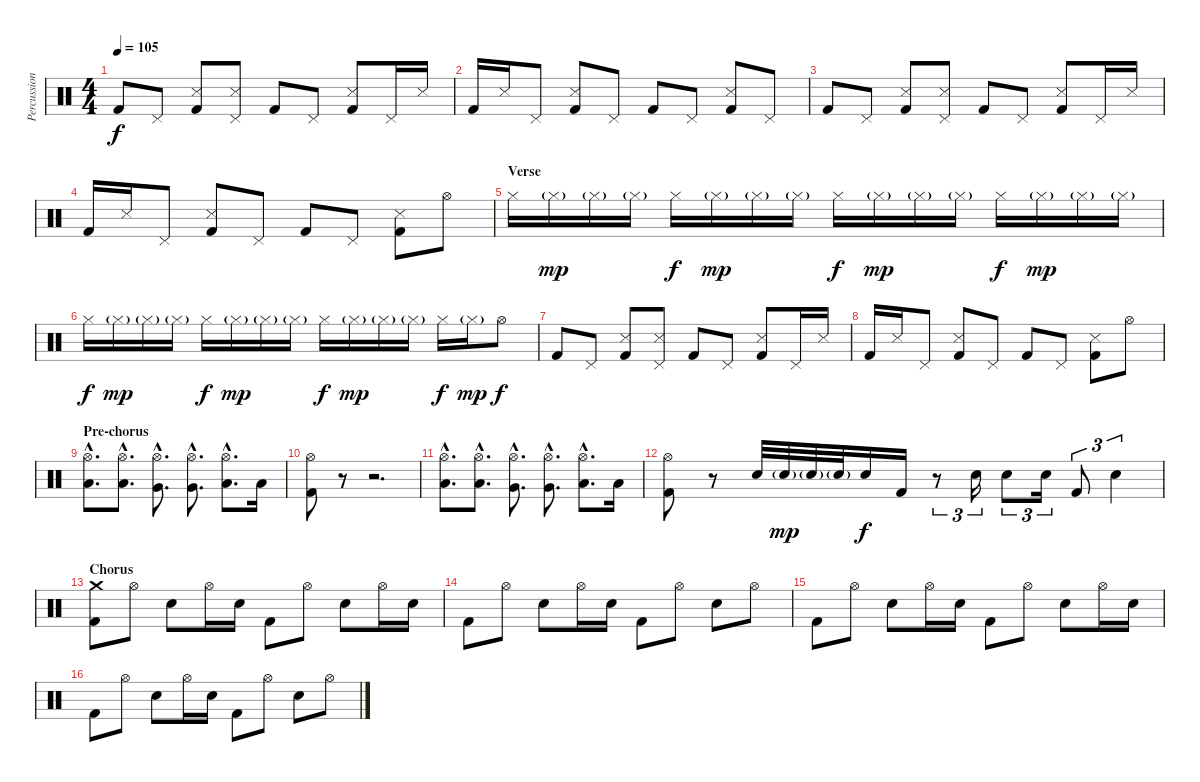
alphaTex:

\track ("Percussion" "Percussion") {instrument percussion}
\staff {score}
\articulation defaults
\ts (4 4)
\tempo 105
\clef neutral
\ks c "Kick (hit) 2".8{dy f} "Pedal Hi-Hat (hit)".8
("Snare (side stick) 3" "Kick (hit) 2").8 ("Pedal Hi-Hat (hit)" "Snare (side stick) 3").8 "Kick (hit) 2".8 "Pedal Hi-Hat (hit)".8 ("Snare (side stick) 3" "Kick (hit) 2").8 "Pedal Hi-Hat (hit)".16 "Snare (side stick) 3".16 |
"Kick (hit) 2".16 "Snare (side stick) 3".16 "Pedal Hi-Hat (hit)".8 ("Snare (side stick) 3" "Kick (hit) 2").8 "Pedal Hi-Hat (hit)".8 "Kick (hit) 2".8 "Pedal Hi-Hat (hit)".8 ("Snare (side stick) 3" "Kick (hit) 2").8 "Pedal Hi-Hat (hit)".8 |
"Kick (hit) 2".8 "Pedal Hi-Hat (hit)".8 ("Snare (side stick) 3" "Kick (hit) 2").8 ("Pedal Hi-Hat (hit)" "Snare (side stick) 3").8 "Kick (hit) 2".8 "Pedal Hi-Hat (hit)".8 ("Snare (side stick) 3" "Kick (hit) 2").8 "Pedal Hi-Hat (hit)".16 "Snare (side stick) 3".16 |
"Kick (hit) 2".16 "Snare (side stick) 3".16 "Pedal Hi-Hat (hit)".8 ("Snare (side stick) 3" "Kick (hit) 2").8 "Pedal Hi-Hat (hit)".8 "Kick (hit) 2".8 "Pedal Hi-Hat (hit)".8 ("Snare (side stick) 3" "Kick (hit) 2").8 "Hi-Hat (open)".8 |
\section ("" "Verse")
"Hi-Hat (closed)".16 "Hi-Hat (closed)"{g}.16{dy mp} "Hi-Hat (closed)"{g}.16 "Hi-Hat (closed)"{g}.16 "Hi-Hat (closed)".16{dy f} "Hi-Hat (closed)"{g}.16{dy mp} "Hi-Hat (closed)"{g}.16 "Hi-Hat (closed)"{g}.16 "Hi-Hat (closed)".16{dy f} "Hi-Hat (closed)"{g}.16{dy mp} "Hi-Hat (closed)"{g}.16 "Hi-Hat (closed)"{g}.16 "Hi-Hat (closed)".16{dy f} "Hi-Hat (closed)"{g}.16{dy mp} "Hi-Hat (closed)"{g}.16 "Hi-Hat (closed)"{g}.16 |
"Hi-Hat (closed)".16{dy f} "Hi-Hat (closed)"{g}.16{dy mp} "Hi-Hat (closed)"{g}.16 "Hi-Hat (closed)"{g}.16 "Hi-Hat (closed)".16{dy f} "Hi-Hat (closed)"{g}.16{dy mp} "Hi-Hat (closed)"{g}.16 "Hi-Hat (closed)"{g}.16 "Hi-Hat (closed)".16{dy f} "Hi-Hat (closed)"{g}.16{dy mp} "Hi-Hat (closed)"{g}.16 "Hi-Hat (closed)"{g}.16 "Hi-Hat (closed)".16{dy f} "Hi-Hat (closed)"{g}.16{dy mp} "Hi-Hat (open)".8{dy f} |
"Kick (hit) 2".8 "Pedal Hi-Hat (hit)".8 ("Snare (side stick) 3" "Kick (hit) 2").8 ("Pedal Hi-Hat (hit)" "Snare (side stick) 3").8 "Kick (hit) 2".8 "Pedal Hi-Hat (hit)".8 ("Snare (side stick) 3" "Kick (hit) 2").8 "Pedal Hi-Hat (hit)".16 "Snare (side stick) 3".16 |
"Kick (hit) 2".16 "Snare (side stick) 3".16 "Pedal Hi-Hat (hit)".8 ("Snare (side stick) 3" "Kick (hit) 2").8 "Pedal Hi-Hat (hit)".8 "Kick (hit) 2".8 "Pedal Hi-Hat (hit)".8 ("Snare (side stick) 3" "Kick (hit) 2").8 "Hi-Hat (open)".8 |
\section ("" "Pre-chorus")
("Hi-Hat (open)"{hac} "Low Tom (hit)"{hac}).8{d} ("Hi-Hat (open)"{hac} "Low Tom (hit)"{hac}).8{d} ("Hi-Hat (open)"{hac} "Very Low Tom (hit)"{hac}).8{d} ("Hi-Hat (open)"{hac} "Very Low Tom (hit)"{hac}).8{d} ("Hi-Hat (open)"{hac} "Low Floor Tom (hit)"{hac}).8{d} "Low Floor Tom (hit)".16 |
("Hi-Hat (open)" "Kick (hit) 2").8 r.8 r.2{d} |
("Hi-Hat (open)"{hac} "Low Tom (hit)"{hac}).8{d} ("Hi-Hat (open)"{hac} "Low Tom (hit)"{hac}).8{d} ("Hi-Hat (open)"{hac} "Very Low Tom (hit)"{hac}).8{d} ("Hi-Hat (open)"{hac} "Very Low Tom (hit)"{hac}).8{d} ("Hi-Hat (open)"{hac} "Low Floor Tom (hit)"{hac}).8{d} "Low Floor Tom (hit)".16 |
("Hi-Hat (open)" "Kick (hit) 2").8 r.8 "Electric Snare (hit)".32 "Electric Snare (hit)"{g}.32{dy mp} "Electric Snare (hit)"{g}.32 "Electric Snare (hit)"{g}.32 "Electric Snare (hit)".16{dy f} "Kick (hit) 2".16 r.8{tu (3 2)} "Electric Snare (hit)".16{tu (3 2)} "Electric Snare (hit)".8{tu (3 2)} "Electric Snare (hit)".16{tu (3 2)} "Kick (hit) 2".8{tu (3 2)} "Electric Snare (hit)".4{tu (3 2)} |
\section ("" "Chorus")
("Crash medium (hit)" "Kick (hit) 2").8 "Hi-Hat (open)".8 "Electric Snare (hit)".8 "Hi-Hat (open)".16 "Electric Snare (hit)".16 "Kick (hit) 2".8 "Hi-Hat (open)".8 "Electric Snare (hit)".8 "Hi-Hat (open)".16 "Electric Snare (hit)".16 |
"Kick (hit) 2".8 "Hi-Hat (open)".8 "Electric Snare (hit)".8 "Hi-Hat (open)".16 "Electric Snare (hit)".16 "Kick (hit) 2".8 "Hi-Hat (open)".8 "Electric Snare (hit)".8 "Hi-Hat (open)".8 |
"Kick (hit) 2".8 "Hi-Hat (open)".8 "Electric Snare (hit)".8 "Hi-Hat (open)".16 "Electric Snare (hit)".16 "Kick (hit) 2".8 "Hi-Hat (open)".8 "Electric Snare (hit)".8 "Hi-Hat (open)".16 "Electric Snare (hit)".16 |
"Kick (hit) 2".8 "Hi-Hat (open)".8 "Electric Snare (hit)".8 "Hi-Hat (open)".16 "Electric Snare (hit)".16 "Kick (hit) 2".8 "Hi-Hat (open)".8 "Electric Snare (hit)".8 "Hi-Hat (open)".8
